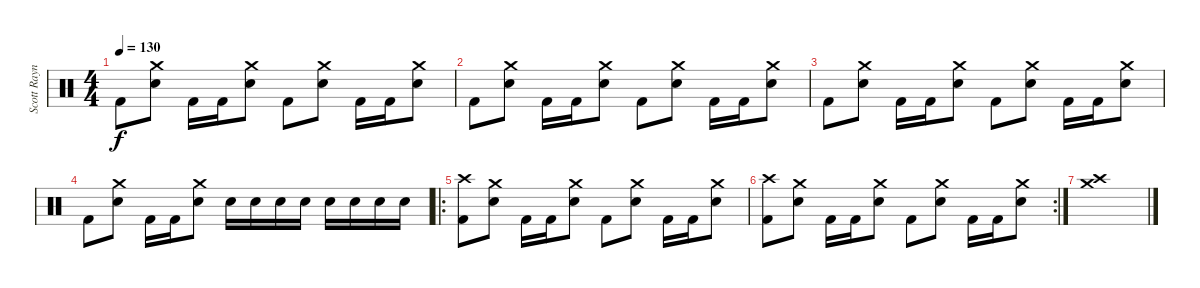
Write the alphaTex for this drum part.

\track ("Scott Raynor Drums" "Scott Rayn") {instrument percussion}
\staff {score}
\articulation defaults
\ts (4 4)
\tempo 130
\clef neutral
\ks c "Kick (hit) 2".8{dy f}
("Crash medium (hit)" "Electric Snare (hit)").8 "Kick (hit) 2".16 "Kick (hit) 2".16 ("Crash medium (hit)" "Electric Snare (hit)").8 "Kick (hit) 2".8 ("Crash medium (hit)" "Electric Snare (hit)").8 "Kick (hit) 2".16 "Kick (hit) 2".16 ("Crash medium (hit)" "Electric Snare (hit)").8 |
"Kick (hit) 2".8 ("Crash medium (hit)" "Electric Snare (hit)").8 "Kick (hit) 2".16 "Kick (hit) 2".16 ("Crash medium (hit)" "Electric Snare (hit)").8 "Kick (hit) 2".8 ("Crash medium (hit)" "Electric Snare (hit)").8 "Kick (hit) 2".16 "Kick (hit) 2".16 ("Crash medium (hit)" "Electric Snare (hit)").8 |
"Kick (hit) 2".8 ("Crash medium (hit)" "Electric Snare (hit)").8 "Kick (hit) 2".16 "Kick (hit) 2".16 ("Crash medium (hit)" "Electric Snare (hit)").8 "Kick (hit) 2".8 ("Crash medium (hit)" "Electric Snare (hit)").8 "Kick (hit) 2".16 "Kick (hit) 2".16 ("Crash medium (hit)" "Electric Snare (hit)").8 |
"Kick (hit) 2".8 ("Crash medium (hit)" "Electric Snare (hit)").8 "Kick (hit) 2".16 "Kick (hit) 2".16 ("Crash medium (hit)" "Electric Snare (hit)").8 "Electric Snare (hit)".16 "Electric Snare (hit)".16 "Electric Snare (hit)".16 "Electric Snare (hit)".16 "Electric Snare (hit)".16 "Electric Snare (hit)".16 "Electric Snare (hit)".16 "Electric Snare (hit)".16 |
\ro
("Crash high (hit)" "Kick (hit) 2").8 ("Crash medium (hit)" "Electric Snare (hit)").8 "Kick (hit) 2".16 "Kick (hit) 2".16 ("Crash medium (hit)" "Electric Snare (hit)").8 "Kick (hit) 2".8 ("Crash medium (hit)" "Electric Snare (hit)").8 "Kick (hit) 2".16 "Kick (hit) 2".16 ("Crash medium (hit)" "Electric Snare (hit)").8 |
\rc 2
("Crash high (hit)" "Kick (hit) 2").8 ("Crash medium (hit)" "Electric Snare (hit)").8 "Kick (hit) 2".16 "Kick (hit) 2".16 ("Crash medium (hit)" "Electric Snare (hit)").8 "Kick (hit) 2".8 ("Crash medium (hit)" "Electric Snare (hit)").8 "Kick (hit) 2".16 "Kick (hit) 2".16 ("Crash medium (hit)" "Electric Snare (hit)").8 |
("Crash medium (hit)" "Crash high (hit)").1
